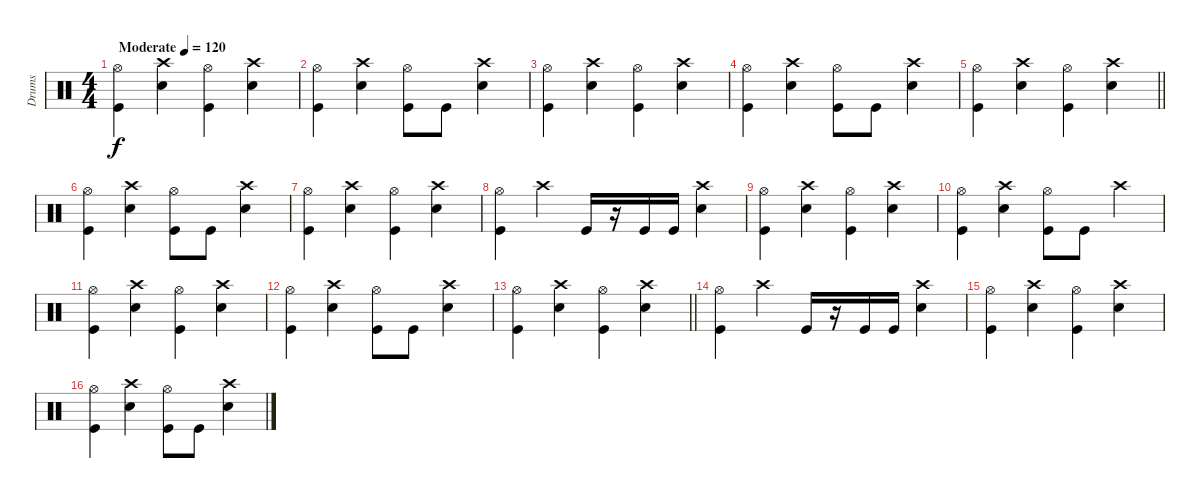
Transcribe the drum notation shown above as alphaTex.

\track ("Drums" "Drums") {instrument percussion}
\staff {score}
\articulation defaults
\ts (4 4)
\tempo (120 "Moderate")
\clef neutral
\ks c
("Hi-Hat (open)" "Kick (hit)").4{dy f} ("Crash high (hit)" "Snare (hit) 2").4 ("Hi-Hat (open)" "Kick (hit)").4 ("Crash high (hit)" "Snare (hit) 2").4 |
("Hi-Hat (open)" "Kick (hit)").4 ("Crash high (hit)" "Snare (hit) 2").4 ("Hi-Hat (open)" "Kick (hit)").8 "Kick (hit)".8 ("Crash high (hit)" "Snare (hit) 2").4 |
("Hi-Hat (open)" "Kick (hit)").4 ("Crash high (hit)" "Snare (hit) 2").4 ("Hi-Hat (open)" "Kick (hit)").4 ("Crash high (hit)" "Snare (hit) 2").4 |
("Hi-Hat (open)" "Kick (hit)").4 ("Crash high (hit)" "Snare (hit) 2").4 ("Hi-Hat (open)" "Kick (hit)").8 "Kick (hit)".8 ("Crash high (hit)" "Snare (hit) 2").4 |
\barLineRight lightlight
("Hi-Hat (open)" "Kick (hit)").4 ("Crash high (hit)" "Snare (hit) 2").4 ("Hi-Hat (open)" "Kick (hit)").4 ("Crash high (hit)" "Snare (hit) 2").4 |
("Hi-Hat (open)" "Kick (hit)").4 ("Crash high (hit)" "Snare (hit) 2").4 ("Hi-Hat (open)" "Kick (hit)").8 "Kick (hit)".8 ("Crash high (hit)" "Snare (hit) 2").4 |
("Hi-Hat (open)" "Kick (hit)").4 ("Crash high (hit)" "Snare (hit) 2").4 ("Hi-Hat (open)" "Kick (hit)").4 ("Crash high (hit)" "Snare (hit) 2").4 |
("Hi-Hat (open)" "Kick (hit)").4 "Crash high (hit)".4 "Kick (hit)".16 r.16 "Kick (hit)".16 "Kick (hit)".16 ("Crash high (hit)" "Snare (hit) 2").4 |
("Hi-Hat (open)" "Kick (hit)").4 ("Crash high (hit)" "Snare (hit) 2").4 ("Hi-Hat (open)" "Kick (hit)").4 ("Crash high (hit)" "Snare (hit) 2").4 |
("Hi-Hat (open)" "Kick (hit)").4 ("Crash high (hit)" "Snare (hit) 2").4 ("Hi-Hat (open)" "Kick (hit)").8 "Kick (hit)".8 "Crash high (hit)".4 |
("Hi-Hat (open)" "Kick (hit)").4 ("Crash high (hit)" "Snare (hit) 2").4 ("Hi-Hat (open)" "Kick (hit)").4 ("Crash high (hit)" "Snare (hit) 2").4 |
("Hi-Hat (open)" "Kick (hit)").4 ("Crash high (hit)" "Snare (hit) 2").4 ("Hi-Hat (open)" "Kick (hit)").8 "Kick (hit)".8 ("Crash high (hit)" "Snare (hit) 2").4 |
\barLineRight lightlight
("Hi-Hat (open)" "Kick (hit)").4 ("Crash high (hit)" "Snare (hit) 2").4 ("Hi-Hat (open)" "Kick (hit)").4 ("Crash high (hit)" "Snare (hit) 2").4 |
("Hi-Hat (open)" "Kick (hit)").4 "Crash high (hit)".4 "Kick (hit)".16 r.16 "Kick (hit)".16 "Kick (hit)".16 ("Crash high (hit)" "Snare (hit) 2").4 |
("Hi-Hat (open)" "Kick (hit)").4 ("Crash high (hit)" "Snare (hit) 2").4 ("Hi-Hat (open)" "Kick (hit)").4 ("Crash high (hit)" "Snare (hit) 2").4 |
("Hi-Hat (open)" "Kick (hit)").4 ("Crash high (hit)" "Snare (hit) 2").4 ("Hi-Hat (open)" "Kick (hit)").8 "Kick (hit)".8 ("Crash high (hit)" "Snare (hit) 2").4
